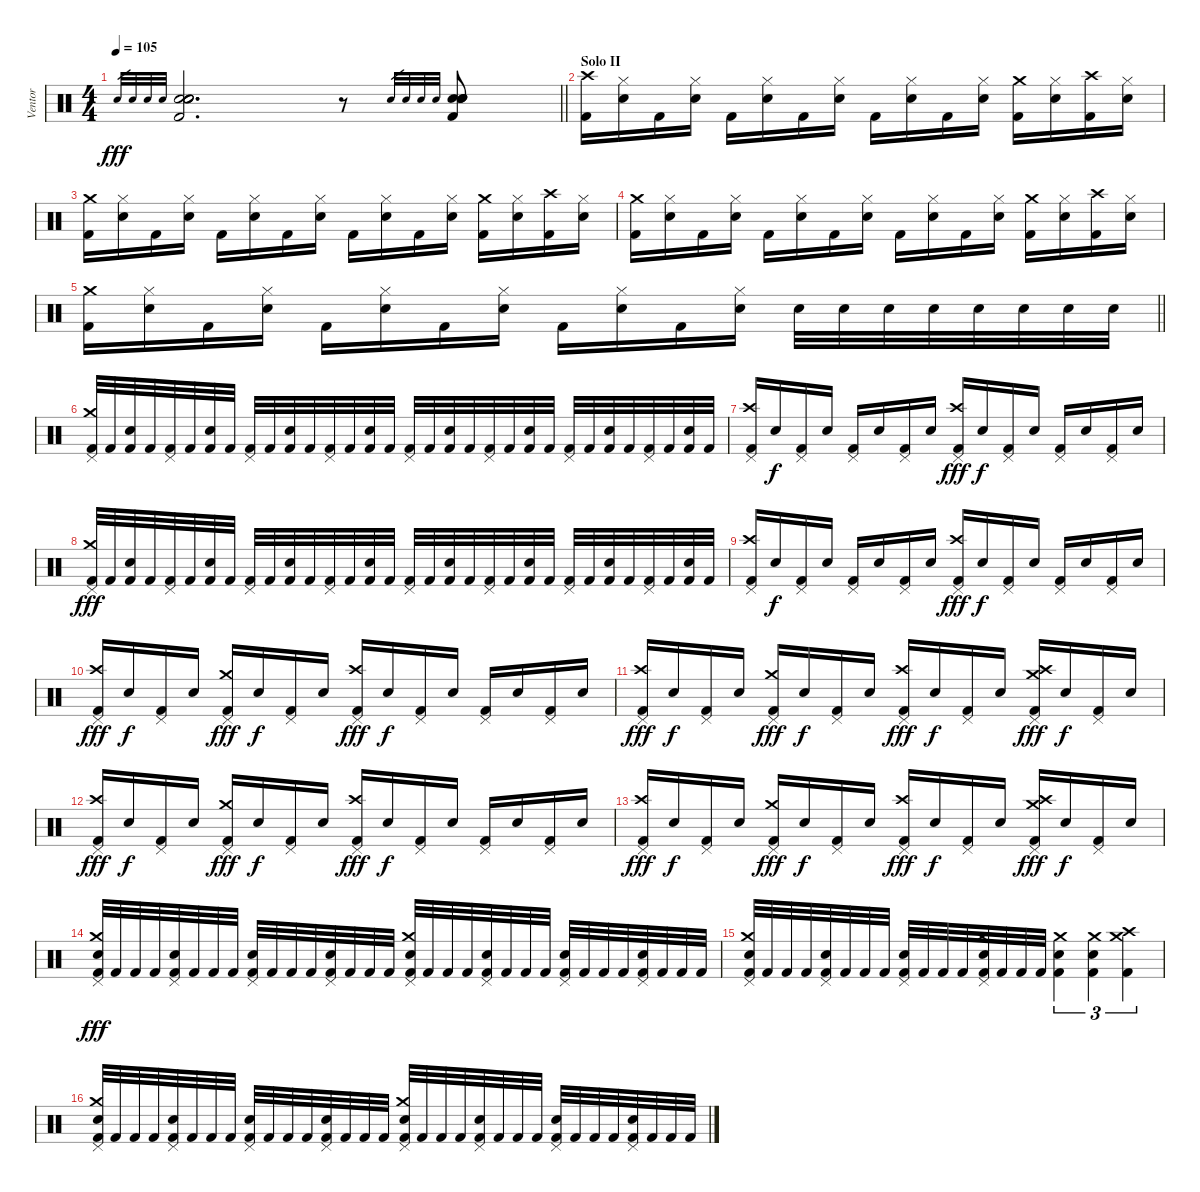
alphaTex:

\track ("Ventor" "Ventor") {instrument percussion}
\staff {score}
\articulation defaults
\ts (4 4)
\tempo 105
\clef neutral
\barLineRight lightlight
\ks c "Electric Snare (hit)".32{gr dy fff} "Electric Snare (hit)".32{gr} "Electric Snare (hit)".32{gr} "Electric Snare (hit)".32{gr}
("Electric Snare (hit)" "Electric Snare (hit)" "Electric Snare (hit)" "Electric Snare (hit)" "Kick (hit) 2").2{d} r.8 "Electric Snare (hit)".32{gr} "Electric Snare (hit)".32{gr} "Electric Snare (hit)".32{gr} "Electric Snare (hit)".32{gr} ("Electric Snare (hit)" "Electric Snare (hit)" "Electric Snare (hit)" "Electric Snare (hit)" "Kick (hit) 2").8 |
\section ("" "Solo II")
("Crash high (hit)" "Kick (hit) 2").16 ("Hi-Hat (closed)" "Electric Snare (hit)").16 "Kick (hit) 2".16 ("Hi-Hat (closed)" "Electric Snare (hit)").16 "Kick (hit) 2".16 ("Hi-Hat (closed)" "Electric Snare (hit)").16 "Kick (hit) 2".16 ("Hi-Hat (closed)" "Electric Snare (hit)").16 "Kick (hit) 2".16 ("Hi-Hat (closed)" "Electric Snare (hit)").16 "Kick (hit) 2".16 ("Hi-Hat (closed)" "Electric Snare (hit)").16 ("Crash medium (hit)" "Kick (hit) 2").16 ("Hi-Hat (closed)" "Electric Snare (hit)").16 ("Crash high (hit)" "Kick (hit) 2").16 ("Hi-Hat (closed)" "Electric Snare (hit)").16 |
("Crash medium (hit)" "Kick (hit) 2").16 ("Hi-Hat (closed)" "Electric Snare (hit)").16 "Kick (hit) 2".16 ("Hi-Hat (closed)" "Electric Snare (hit)").16 "Kick (hit) 2".16 ("Hi-Hat (closed)" "Electric Snare (hit)").16 "Kick (hit) 2".16 ("Hi-Hat (closed)" "Electric Snare (hit)").16 "Kick (hit) 2".16 ("Hi-Hat (closed)" "Electric Snare (hit)").16 "Kick (hit) 2".16 ("Hi-Hat (closed)" "Electric Snare (hit)").16 ("Crash medium (hit)" "Kick (hit) 2").16 ("Hi-Hat (closed)" "Electric Snare (hit)").16 ("Crash high (hit)" "Kick (hit) 2").16 ("Hi-Hat (closed)" "Electric Snare (hit)").16 |
("Crash medium (hit)" "Kick (hit) 2").16 ("Hi-Hat (closed)" "Electric Snare (hit)").16 "Kick (hit) 2".16 ("Hi-Hat (closed)" "Electric Snare (hit)").16 "Kick (hit) 2".16 ("Hi-Hat (closed)" "Electric Snare (hit)").16 "Kick (hit) 2".16 ("Hi-Hat (closed)" "Electric Snare (hit)").16 "Kick (hit) 2".16 ("Hi-Hat (closed)" "Electric Snare (hit)").16 "Kick (hit) 2".16 ("Hi-Hat (closed)" "Electric Snare (hit)").16 ("Crash medium (hit)" "Kick (hit) 2").16 ("Hi-Hat (closed)" "Electric Snare (hit)").16 ("Crash high (hit)" "Kick (hit) 2").16 ("Hi-Hat (closed)" "Electric Snare (hit)").16 |
\barLineRight lightlight
("Crash medium (hit)" "Kick (hit) 2").16 ("Hi-Hat (closed)" "Electric Snare (hit)").16 "Kick (hit) 2".16 ("Hi-Hat (closed)" "Electric Snare (hit)").16 "Kick (hit) 2".16 ("Hi-Hat (closed)" "Electric Snare (hit)").16 "Kick (hit) 2".16 ("Hi-Hat (closed)" "Electric Snare (hit)").16 "Kick (hit) 2".16 ("Hi-Hat (closed)" "Electric Snare (hit)").16 "Kick (hit) 2".16 ("Hi-Hat (closed)" "Electric Snare (hit)").16 "Electric Snare (hit)".32 "Electric Snare (hit)".32 "Electric Snare (hit)".32 "Electric Snare (hit)".32 "Electric Snare (hit)".32 "Electric Snare (hit)".32 "Electric Snare (hit)".32 "Electric Snare (hit)".32 |
("Crash medium (hit)" "Pedal Hi-Hat (hit)" "Kick (hit) 2").32 "Kick (hit) 2".32 ("Electric Snare (hit)" "Kick (hit) 2").32 "Kick (hit) 2".32 ("Pedal Hi-Hat (hit)" "Kick (hit) 2").32 "Kick (hit) 2".32 ("Electric Snare (hit)" "Kick (hit) 2").32 "Kick (hit) 2".32 ("Pedal Hi-Hat (hit)" "Kick (hit) 2").32 "Kick (hit) 2".32 ("Electric Snare (hit)" "Kick (hit) 2").32 "Kick (hit) 2".32 ("Pedal Hi-Hat (hit)" "Kick (hit) 2").32 "Kick (hit) 2".32 ("Electric Snare (hit)" "Kick (hit) 2").32 "Kick (hit) 2".32 ("Pedal Hi-Hat (hit)" "Kick (hit) 2").32 "Kick (hit) 2".32 ("Electric Snare (hit)" "Kick (hit) 2").32 "Kick (hit) 2".32 ("Pedal Hi-Hat (hit)" "Kick (hit) 2").32 "Kick (hit) 2".32 ("Electric Snare (hit)" "Kick (hit) 2").32 "Kick (hit) 2".32 ("Pedal Hi-Hat (hit)" "Kick (hit) 2").32 "Kick (hit) 2".32 ("Electric Snare (hit)" "Kick (hit) 2").32 "Kick (hit) 2".32 ("Pedal Hi-Hat (hit)" "Kick (hit) 2").32 "Kick (hit) 2".32 ("Electric Snare (hit)" "Kick (hit) 2").32 "Kick (hit) 2".32 |
("Crash high (hit)" "Pedal Hi-Hat (hit)" "Kick (hit) 2").16 "Electric Snare (hit)".16{dy f} ("Pedal Hi-Hat (hit)" "Kick (hit) 2").16 "Electric Snare (hit)".16 ("Pedal Hi-Hat (hit)" "Kick (hit) 2").16 "Electric Snare (hit)".16 ("Pedal Hi-Hat (hit)" "Kick (hit) 2").16 "Electric Snare (hit)".16 ("Crash high (hit)" "Pedal Hi-Hat (hit)" "Kick (hit) 2").16{dy fff} "Electric Snare (hit)".16{dy f} ("Pedal Hi-Hat (hit)" "Kick (hit) 2").16 "Electric Snare (hit)".16 ("Pedal Hi-Hat (hit)" "Kick (hit) 2").16 "Electric Snare (hit)".16 ("Pedal Hi-Hat (hit)" "Kick (hit) 2").16 "Electric Snare (hit)".16 |
("Crash medium (hit)" "Pedal Hi-Hat (hit)" "Kick (hit) 2").32{dy fff} "Kick (hit) 2".32 ("Electric Snare (hit)" "Kick (hit) 2").32 "Kick (hit) 2".32 ("Pedal Hi-Hat (hit)" "Kick (hit) 2").32 "Kick (hit) 2".32 ("Electric Snare (hit)" "Kick (hit) 2").32 "Kick (hit) 2".32 ("Pedal Hi-Hat (hit)" "Kick (hit) 2").32 "Kick (hit) 2".32 ("Electric Snare (hit)" "Kick (hit) 2").32 "Kick (hit) 2".32 ("Pedal Hi-Hat (hit)" "Kick (hit) 2").32 "Kick (hit) 2".32 ("Electric Snare (hit)" "Kick (hit) 2").32 "Kick (hit) 2".32 ("Pedal Hi-Hat (hit)" "Kick (hit) 2").32 "Kick (hit) 2".32 ("Electric Snare (hit)" "Kick (hit) 2").32 "Kick (hit) 2".32 ("Pedal Hi-Hat (hit)" "Kick (hit) 2").32 "Kick (hit) 2".32 ("Electric Snare (hit)" "Kick (hit) 2").32 "Kick (hit) 2".32 ("Pedal Hi-Hat (hit)" "Kick (hit) 2").32 "Kick (hit) 2".32 ("Electric Snare (hit)" "Kick (hit) 2").32 "Kick (hit) 2".32 ("Pedal Hi-Hat (hit)" "Kick (hit) 2").32 "Kick (hit) 2".32 ("Electric Snare (hit)" "Kick (hit) 2").32 "Kick (hit) 2".32 |
("Crash high (hit)" "Pedal Hi-Hat (hit)" "Kick (hit) 2").16 "Electric Snare (hit)".16{dy f} ("Pedal Hi-Hat (hit)" "Kick (hit) 2").16 "Electric Snare (hit)".16 ("Pedal Hi-Hat (hit)" "Kick (hit) 2").16 "Electric Snare (hit)".16 ("Pedal Hi-Hat (hit)" "Kick (hit) 2").16 "Electric Snare (hit)".16 ("Crash high (hit)" "Pedal Hi-Hat (hit)" "Kick (hit) 2").16{dy fff} "Electric Snare (hit)".16{dy f} ("Pedal Hi-Hat (hit)" "Kick (hit) 2").16 "Electric Snare (hit)".16 ("Pedal Hi-Hat (hit)" "Kick (hit) 2").16 "Electric Snare (hit)".16 ("Pedal Hi-Hat (hit)" "Kick (hit) 2").16 "Electric Snare (hit)".16 |
("Crash high (hit)" "Pedal Hi-Hat (hit)" "Kick (hit) 2").16{dy fff} "Electric Snare (hit)".16{dy f} ("Pedal Hi-Hat (hit)" "Kick (hit) 2").16 "Electric Snare (hit)".16 ("Crash medium (hit)" "Pedal Hi-Hat (hit)" "Kick (hit) 2").16{dy fff} "Electric Snare (hit)".16{dy f} ("Pedal Hi-Hat (hit)" "Kick (hit) 2").16 "Electric Snare (hit)".16 ("Crash high (hit)" "Pedal Hi-Hat (hit)" "Kick (hit) 2").16{dy fff} "Electric Snare (hit)".16{dy f} ("Pedal Hi-Hat (hit)" "Kick (hit) 2").16 "Electric Snare (hit)".16 ("Pedal Hi-Hat (hit)" "Kick (hit) 2").16 "Electric Snare (hit)".16 ("Pedal Hi-Hat (hit)" "Kick (hit) 2").16 "Electric Snare (hit)".16 |
("Crash high (hit)" "Pedal Hi-Hat (hit)" "Kick (hit) 2").16{dy fff} "Electric Snare (hit)".16{dy f} ("Pedal Hi-Hat (hit)" "Kick (hit) 2").16 "Electric Snare (hit)".16 ("Crash medium (hit)" "Pedal Hi-Hat (hit)" "Kick (hit) 2").16{dy fff} "Electric Snare (hit)".16{dy f} ("Pedal Hi-Hat (hit)" "Kick (hit) 2").16 "Electric Snare (hit)".16 ("Crash high (hit)" "Pedal Hi-Hat (hit)" "Kick (hit) 2").16{dy fff} "Electric Snare (hit)".16{dy f} ("Pedal Hi-Hat (hit)" "Kick (hit) 2").16 "Electric Snare (hit)".16 ("Crash medium (hit)" "Crash high (hit)" "Pedal Hi-Hat (hit)" "Kick (hit) 2").16{dy fff} "Electric Snare (hit)".16{dy f} ("Pedal Hi-Hat (hit)" "Kick (hit) 2").16 "Electric Snare (hit)".16 |
("Crash high (hit)" "Pedal Hi-Hat (hit)" "Kick (hit) 2").16{dy fff} "Electric Snare (hit)".16{dy f} ("Pedal Hi-Hat (hit)" "Kick (hit) 2").16 "Electric Snare (hit)".16 ("Crash medium (hit)" "Pedal Hi-Hat (hit)" "Kick (hit) 2").16{dy fff} "Electric Snare (hit)".16{dy f} ("Pedal Hi-Hat (hit)" "Kick (hit) 2").16 "Electric Snare (hit)".16 ("Crash high (hit)" "Pedal Hi-Hat (hit)" "Kick (hit) 2").16{dy fff} "Electric Snare (hit)".16{dy f} ("Pedal Hi-Hat (hit)" "Kick (hit) 2").16 "Electric Snare (hit)".16 ("Pedal Hi-Hat (hit)" "Kick (hit) 2").16 "Electric Snare (hit)".16 ("Pedal Hi-Hat (hit)" "Kick (hit) 2").16 "Electric Snare (hit)".16 |
("Crash high (hit)" "Pedal Hi-Hat (hit)" "Kick (hit) 2").16{dy fff} "Electric Snare (hit)".16{dy f} ("Pedal Hi-Hat (hit)" "Kick (hit) 2").16 "Electric Snare (hit)".16 ("Crash medium (hit)" "Pedal Hi-Hat (hit)" "Kick (hit) 2").16{dy fff} "Electric Snare (hit)".16{dy f} ("Pedal Hi-Hat (hit)" "Kick (hit) 2").16 "Electric Snare (hit)".16 ("Crash high (hit)" "Pedal Hi-Hat (hit)" "Kick (hit) 2").16{dy fff} "Electric Snare (hit)".16{dy f} ("Pedal Hi-Hat (hit)" "Kick (hit) 2").16 "Electric Snare (hit)".16 ("Crash medium (hit)" "Crash high (hit)" "Pedal Hi-Hat (hit)" "Kick (hit) 2").16{dy fff} "Electric Snare (hit)".16{dy f} ("Pedal Hi-Hat (hit)" "Kick (hit) 2").16 "Electric Snare (hit)".16 |
("Crash medium (hit)" "Pedal Hi-Hat (hit)" "Electric Snare (hit)" "Kick (hit) 2").32{dy fff} "Kick (hit) 2".32 "Kick (hit) 2".32 "Kick (hit) 2".32 ("Pedal Hi-Hat (hit)" "Electric Snare (hit)" "Kick (hit) 2").32 "Kick (hit) 2".32 "Kick (hit) 2".32 "Kick (hit) 2".32 ("Pedal Hi-Hat (hit)" "Electric Snare (hit)" "Kick (hit) 2").32 "Kick (hit) 2".32 "Kick (hit) 2".32 "Kick (hit) 2".32 ("Pedal Hi-Hat (hit)" "Electric Snare (hit)" "Kick (hit) 2").32 "Kick (hit) 2".32 "Kick (hit) 2".32 "Kick (hit) 2".32 ("Crash medium (hit)" "Pedal Hi-Hat (hit)" "Electric Snare (hit)" "Kick (hit) 2").32 "Kick (hit) 2".32 "Kick (hit) 2".32 "Kick (hit) 2".32 ("Pedal Hi-Hat (hit)" "Electric Snare (hit)" "Kick (hit) 2").32 "Kick (hit) 2".32 "Kick (hit) 2".32 "Kick (hit) 2".32 ("Pedal Hi-Hat (hit)" "Electric Snare (hit)" "Kick (hit) 2").32 "Kick (hit) 2".32 "Kick (hit) 2".32 "Kick (hit) 2".32 ("Pedal Hi-Hat (hit)" "Electric Snare (hit)" "Kick (hit) 2").32 "Kick (hit) 2".32 "Kick (hit) 2".32 "Kick (hit) 2".32 |
("Crash medium (hit)" "Pedal Hi-Hat (hit)" "Electric Snare (hit)" "Kick (hit) 2").32 "Kick (hit) 2".32 "Kick (hit) 2".32 "Kick (hit) 2".32 ("Pedal Hi-Hat (hit)" "Electric Snare (hit)" "Kick (hit) 2").32 "Kick (hit) 2".32 "Kick (hit) 2".32 "Kick (hit) 2".32 ("Pedal Hi-Hat (hit)" "Electric Snare (hit)" "Kick (hit) 2").32 "Kick (hit) 2".32 "Kick (hit) 2".32 "Kick (hit) 2".32 ("Crash medium (hit)" "Pedal Hi-Hat (hit)" "Electric Snare (hit)" "Kick (hit) 2").32 "Kick (hit) 2".32 "Kick (hit) 2".32 "Kick (hit) 2".32 ("Crash medium (hit)" "Electric Snare (hit)" "Kick (hit) 2").4{tu (3 2)} ("Crash medium (hit)" "Electric Snare (hit)" "Kick (hit) 2").4{tu (3 2)} ("Crash high (hit)" "Crash medium (hit)" "Kick (hit) 2").4{tu (3 2)} |
("Crash medium (hit)" "Pedal Hi-Hat (hit)" "Electric Snare (hit)" "Kick (hit) 2").32 "Kick (hit) 2".32 "Kick (hit) 2".32 "Kick (hit) 2".32 ("Pedal Hi-Hat (hit)" "Electric Snare (hit)" "Kick (hit) 2").32 "Kick (hit) 2".32 "Kick (hit) 2".32 "Kick (hit) 2".32 ("Pedal Hi-Hat (hit)" "Electric Snare (hit)" "Kick (hit) 2").32 "Kick (hit) 2".32 "Kick (hit) 2".32 "Kick (hit) 2".32 ("Pedal Hi-Hat (hit)" "Electric Snare (hit)" "Kick (hit) 2").32 "Kick (hit) 2".32 "Kick (hit) 2".32 "Kick (hit) 2".32 ("Crash medium (hit)" "Pedal Hi-Hat (hit)" "Electric Snare (hit)" "Kick (hit) 2").32 "Kick (hit) 2".32 "Kick (hit) 2".32 "Kick (hit) 2".32 ("Pedal Hi-Hat (hit)" "Electric Snare (hit)" "Kick (hit) 2").32 "Kick (hit) 2".32 "Kick (hit) 2".32 "Kick (hit) 2".32 ("Pedal Hi-Hat (hit)" "Electric Snare (hit)" "Kick (hit) 2").32 "Kick (hit) 2".32 "Kick (hit) 2".32 "Kick (hit) 2".32 ("Pedal Hi-Hat (hit)" "Electric Snare (hit)" "Kick (hit) 2").32 "Kick (hit) 2".32 "Kick (hit) 2".32 "Kick (hit) 2".32
